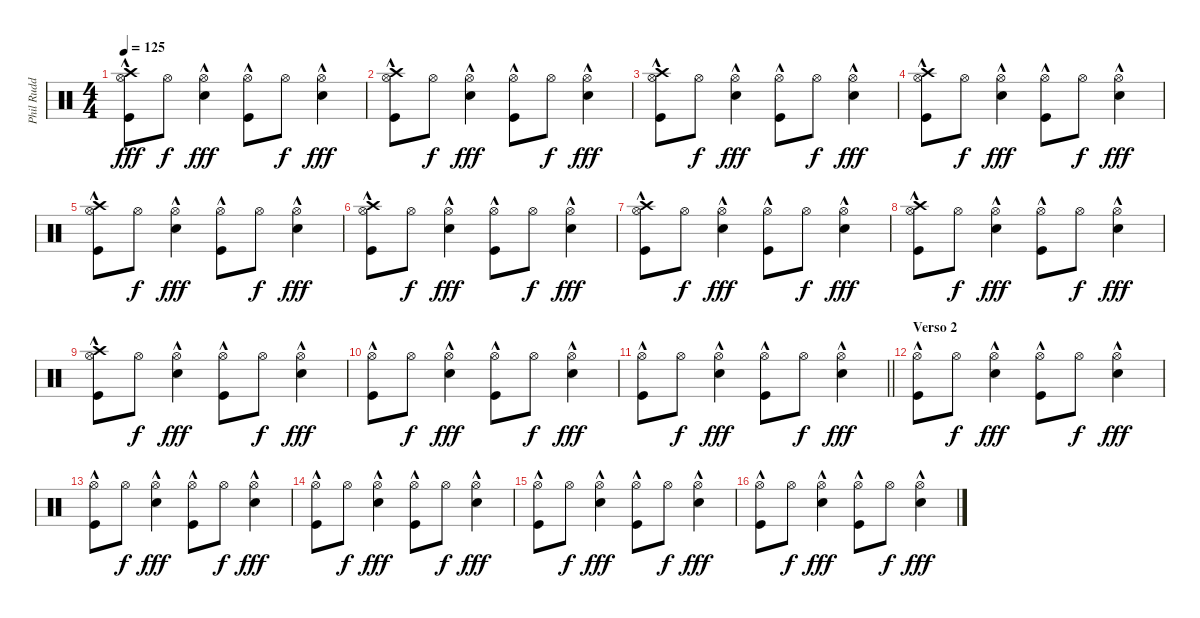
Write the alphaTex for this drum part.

\track ("Phil Rudd" "Phil Rudd") {instrument percussion}
\staff {score}
\articulation defaults
\ts (4 4)
\tempo 125
\clef neutral
\ks c
("Hi-Hat (open)" "Crash high (hit)" "Kick (hit)"{hac}).8{dy fff} "Hi-Hat (open)".8{dy f} ("Snare (hit) 2"{hac} "Hi-Hat (open)").4{dy fff} ("Hi-Hat (open)" "Kick (hit)"{hac}).8 "Hi-Hat (open)".8{dy f} ("Snare (hit) 2"{hac} "Hi-Hat (open)").4{dy fff} |
("Hi-Hat (open)" "Crash high (hit)" "Kick (hit)"{hac}).8 "Hi-Hat (open)".8{dy f} ("Snare (hit) 2"{hac} "Hi-Hat (open)").4{dy fff} ("Hi-Hat (open)" "Kick (hit)"{hac}).8 "Hi-Hat (open)".8{dy f} ("Snare (hit) 2"{hac} "Hi-Hat (open)").4{dy fff} |
("Hi-Hat (open)" "Crash high (hit)" "Kick (hit)"{hac}).8 "Hi-Hat (open)".8{dy f} ("Snare (hit) 2"{hac} "Hi-Hat (open)").4{dy fff} ("Hi-Hat (open)" "Kick (hit)"{hac}).8 "Hi-Hat (open)".8{dy f} ("Snare (hit) 2"{hac} "Hi-Hat (open)").4{dy fff} |
("Hi-Hat (open)" "Crash high (hit)" "Kick (hit)"{hac}).8 "Hi-Hat (open)".8{dy f} ("Snare (hit) 2"{hac} "Hi-Hat (open)").4{dy fff} ("Hi-Hat (open)" "Kick (hit)"{hac}).8 "Hi-Hat (open)".8{dy f} ("Snare (hit) 2"{hac} "Hi-Hat (open)").4{dy fff} |
("Hi-Hat (open)" "Crash high (hit)" "Kick (hit)"{hac}).8 "Hi-Hat (open)".8{dy f} ("Snare (hit) 2"{hac} "Hi-Hat (open)").4{dy fff} ("Hi-Hat (open)" "Kick (hit)"{hac}).8 "Hi-Hat (open)".8{dy f} ("Snare (hit) 2"{hac} "Hi-Hat (open)").4{dy fff} |
("Hi-Hat (open)" "Crash high (hit)" "Kick (hit)"{hac}).8 "Hi-Hat (open)".8{dy f} ("Snare (hit) 2"{hac} "Hi-Hat (open)").4{dy fff} ("Hi-Hat (open)" "Kick (hit)"{hac}).8 "Hi-Hat (open)".8{dy f} ("Snare (hit) 2"{hac} "Hi-Hat (open)").4{dy fff} |
("Hi-Hat (open)" "Crash high (hit)" "Kick (hit)"{hac}).8 "Hi-Hat (open)".8{dy f} ("Snare (hit) 2"{hac} "Hi-Hat (open)").4{dy fff} ("Hi-Hat (open)" "Kick (hit)"{hac}).8 "Hi-Hat (open)".8{dy f} ("Snare (hit) 2"{hac} "Hi-Hat (open)").4{dy fff} |
("Hi-Hat (open)" "Crash high (hit)" "Kick (hit)"{hac}).8 "Hi-Hat (open)".8{dy f} ("Snare (hit) 2"{hac} "Hi-Hat (open)").4{dy fff} ("Hi-Hat (open)" "Kick (hit)"{hac}).8 "Hi-Hat (open)".8{dy f} ("Snare (hit) 2"{hac} "Hi-Hat (open)").4{dy fff} |
("Hi-Hat (open)" "Crash high (hit)" "Kick (hit)"{hac}).8 "Hi-Hat (open)".8{dy f} ("Snare (hit) 2"{hac} "Hi-Hat (open)").4{dy fff} ("Hi-Hat (open)" "Kick (hit)"{hac}).8 "Hi-Hat (open)".8{dy f} ("Snare (hit) 2"{hac} "Hi-Hat (open)").4{dy fff} |
("Hi-Hat (open)" "Kick (hit)"{hac}).8 "Hi-Hat (open)".8{dy f} ("Snare (hit) 2"{hac} "Hi-Hat (open)").4{dy fff} ("Hi-Hat (open)" "Kick (hit)"{hac}).8 "Hi-Hat (open)".8{dy f} ("Snare (hit) 2"{hac} "Hi-Hat (open)").4{dy fff} |
\barLineRight lightlight
("Hi-Hat (open)" "Kick (hit)"{hac}).8 "Hi-Hat (open)".8{dy f} ("Snare (hit) 2"{hac} "Hi-Hat (open)").4{dy fff} ("Hi-Hat (open)" "Kick (hit)"{hac}).8 "Hi-Hat (open)".8{dy f} ("Snare (hit) 2"{hac} "Hi-Hat (open)").4{dy fff} |
\section ("" "Verso 2")
("Hi-Hat (open)" "Kick (hit)"{hac}).8 "Hi-Hat (open)".8{dy f} ("Snare (hit) 2"{hac} "Hi-Hat (open)").4{dy fff} ("Hi-Hat (open)" "Kick (hit)"{hac}).8 "Hi-Hat (open)".8{dy f} ("Snare (hit) 2"{hac} "Hi-Hat (open)").4{dy fff} |
("Hi-Hat (open)" "Kick (hit)"{hac}).8 "Hi-Hat (open)".8{dy f} ("Snare (hit) 2"{hac} "Hi-Hat (open)").4{dy fff} ("Hi-Hat (open)" "Kick (hit)"{hac}).8 "Hi-Hat (open)".8{dy f} ("Snare (hit) 2"{hac} "Hi-Hat (open)").4{dy fff} |
("Hi-Hat (open)" "Kick (hit)"{hac}).8 "Hi-Hat (open)".8{dy f} ("Snare (hit) 2"{hac} "Hi-Hat (open)").4{dy fff} ("Hi-Hat (open)" "Kick (hit)"{hac}).8 "Hi-Hat (open)".8{dy f} ("Snare (hit) 2"{hac} "Hi-Hat (open)").4{dy fff} |
("Hi-Hat (open)" "Kick (hit)"{hac}).8 "Hi-Hat (open)".8{dy f} ("Snare (hit) 2"{hac} "Hi-Hat (open)").4{dy fff} ("Hi-Hat (open)" "Kick (hit)"{hac}).8 "Hi-Hat (open)".8{dy f} ("Snare (hit) 2"{hac} "Hi-Hat (open)").4{dy fff} |
("Hi-Hat (open)" "Kick (hit)"{hac}).8 "Hi-Hat (open)".8{dy f} ("Snare (hit) 2"{hac} "Hi-Hat (open)").4{dy fff} ("Hi-Hat (open)" "Kick (hit)"{hac}).8 "Hi-Hat (open)".8{dy f} ("Snare (hit) 2"{hac} "Hi-Hat (open)").4{dy fff}
